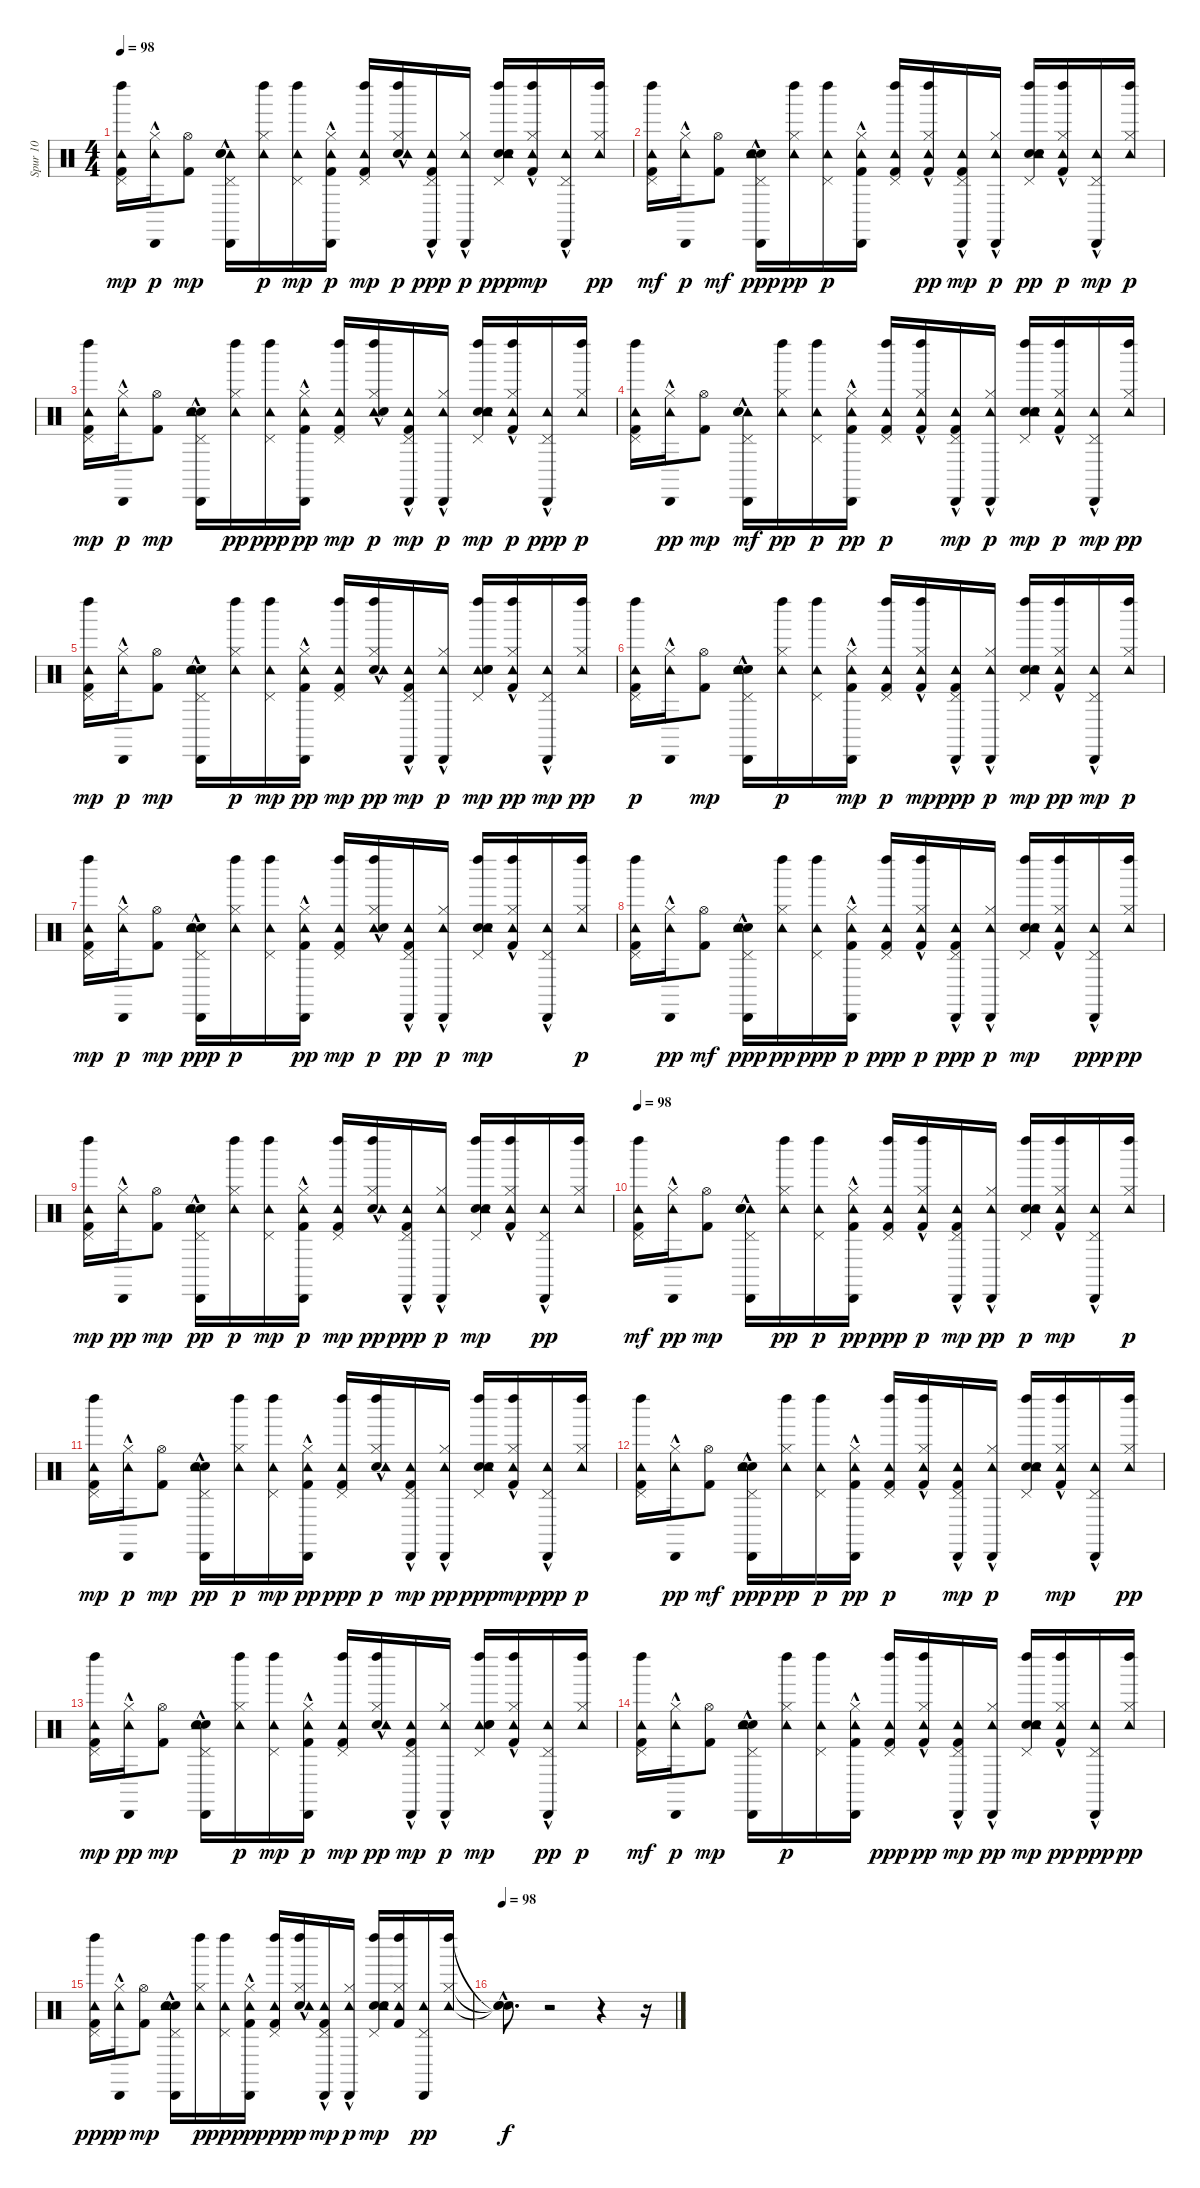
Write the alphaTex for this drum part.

\track ("Spur 10" "Spur 10") {instrument percussion}
\staff {score}
\articulation defaults
\ts (4 4)
\tempo 98
\clef neutral
\ks c
("Left Maraca (hit)" "Kick (hit) 2" "Tambourine (hit)" "Pedal Hi-Hat (hit)").16{dy mp} ("Tambourine (hit)"{hac} "Cabasa (hit)"{hac} "Hi-Hat (closed)").16{dy p} ("Kick (hit) 2" "Hi-Hat (open)").8{dy mp} ("Pedal Hi-Hat (hit)" "Tambourine (hit)" "Cabasa (hit)"{hac} "Snare (hit) 2" "Hand Clap (hit)").16 ("Tambourine (hit)" "Hi-Hat (closed)" "Left Maraca (hit)").16{dy p} ("Tambourine (hit)" "Left Maraca (hit)" "Pedal Hi-Hat (hit)").16{dy mp} ("Cabasa (hit)"{hac} "Kick (hit) 2" "Tambourine (hit)" "Hi-Hat (closed)").16{dy p} ("Left Maraca (hit)" "Kick (hit) 2" "Tambourine (hit)" "Pedal Hi-Hat (hit)").16{dy mp} ("Left Maraca (hit)"{hac} "Snare (hit) 2"{hac} "Tambourine (hit)" "Hi-Hat (closed)").16{dy p} ("Cabasa (hit)" "Kick (hit) 2"{hac} "Pedal Hi-Hat (hit)" "Tambourine (hit)").16{dy ppp} ("Tambourine (hit)" "Cabasa (hit)"{hac} "Hi-Hat (closed)").16{dy p} ("Left Maraca (hit)" "Hand Clap (hit)" "Snare (hit) 2" "Pedal Hi-Hat (hit)" "Tambourine (hit)").16{dy ppp} ("Left Maraca (hit)" "Tambourine (hit)" "Kick (hit) 2"{hac} "Hi-Hat (closed)").16{dy mp} ("Tambourine (hit)" "Cabasa (hit)"{hac} "Pedal Hi-Hat (hit)").16 ("Left Maraca (hit)" "Hi-Hat (closed)" "Tambourine (hit)").16{dy pp} |
("Kick (hit) 2" "Left Maraca (hit)" "Tambourine (hit)" "Pedal Hi-Hat (hit)").16{dy mf} ("Cabasa (hit)"{hac} "Tambourine (hit)"{hac} "Hi-Hat (closed)").16{dy p} ("Hi-Hat (open)" "Kick (hit) 2").8{dy mf} ("Hand Clap (hit)" "Cabasa (hit)"{hac} "Snare (hit) 2" "Pedal Hi-Hat (hit)" "Tambourine (hit)").16{dy ppp} ("Hi-Hat (closed)" "Left Maraca (hit)" "Tambourine (hit)").16{dy pp} ("Tambourine (hit)" "Left Maraca (hit)" "Pedal Hi-Hat (hit)").16{dy p} ("Tambourine (hit)" "Cabasa (hit)"{hac} "Kick (hit) 2" "Hi-Hat (closed)").16 ("Left Maraca (hit)" "Kick (hit) 2" "Tambourine (hit)" "Pedal Hi-Hat (hit)").16 ("Kick (hit) 2" "Left Maraca (hit)"{hac} "Hi-Hat (closed)" "Tambourine (hit)").16{dy pp} ("Cabasa (hit)" "Tambourine (hit)" "Kick (hit) 2"{hac} "Pedal Hi-Hat (hit)").16{dy mp} ("Tambourine (hit)" "Cabasa (hit)"{hac} "Hi-Hat (closed)").16{dy p} ("Pedal Hi-Hat (hit)" "Left Maraca (hit)" "Snare (hit) 2" "Hand Clap (hit)" "Tambourine (hit)").16{dy pp} ("Kick (hit) 2"{hac} "Tambourine (hit)" "Hi-Hat (closed)" "Left Maraca (hit)").16{dy p} ("Tambourine (hit)" "Cabasa (hit)"{hac} "Pedal Hi-Hat (hit)").16{dy mp} ("Left Maraca (hit)" "Tambourine (hit)" "Hi-Hat (closed)").16{dy p} |
("Left Maraca (hit)" "Kick (hit) 2" "Tambourine (hit)" "Pedal Hi-Hat (hit)").16{dy mp} ("Cabasa (hit)"{hac} "Tambourine (hit)"{hac} "Hi-Hat (closed)").16{dy p} ("Kick (hit) 2" "Hi-Hat (open)").8{dy mp} ("Cabasa (hit)"{hac} "Snare (hit) 2" "Tambourine (hit)" "Pedal Hi-Hat (hit)" "Hand Clap (hit)").16 ("Left Maraca (hit)" "Hi-Hat (closed)" "Tambourine (hit)").16{dy pp} ("Pedal Hi-Hat (hit)" "Left Maraca (hit)" "Tambourine (hit)").16{dy ppp} ("Cabasa (hit)"{hac} "Kick (hit) 2" "Hi-Hat (closed)" "Tambourine (hit)").16{dy pp} ("Left Maraca (hit)" "Kick (hit) 2" "Tambourine (hit)" "Pedal Hi-Hat (hit)").16{dy mp} ("Tambourine (hit)" "Left Maraca (hit)"{hac} "Hi-Hat (closed)" "Snare (hit) 2"{hac}).16{dy p} ("Cabasa (hit)" "Kick (hit) 2"{hac} "Tambourine (hit)" "Pedal Hi-Hat (hit)").16{dy mp} ("Tambourine (hit)" "Cabasa (hit)"{hac} "Hi-Hat (closed)").16{dy p} ("Snare (hit) 2" "Tambourine (hit)" "Hand Clap (hit)" "Left Maraca (hit)" "Pedal Hi-Hat (hit)").16{dy mp} ("Kick (hit) 2"{hac} "Hi-Hat (closed)" "Tambourine (hit)" "Left Maraca (hit)").16{dy p} ("Pedal Hi-Hat (hit)" "Cabasa (hit)"{hac} "Tambourine (hit)").16{dy ppp} ("Tambourine (hit)" "Hi-Hat (closed)" "Left Maraca (hit)").16{dy p} |
("Pedal Hi-Hat (hit)" "Kick (hit) 2" "Left Maraca (hit)" "Tambourine (hit)").16 ("Cabasa (hit)"{hac} "Hi-Hat (closed)" "Tambourine (hit)"{hac}).16{dy pp} ("Kick (hit) 2" "Hi-Hat (open)").8{dy mp} ("Cabasa (hit)"{hac} "Tambourine (hit)" "Pedal Hi-Hat (hit)" "Hand Clap (hit)" "Snare (hit) 2").16{dy mf} ("Left Maraca (hit)" "Hi-Hat (closed)" "Tambourine (hit)").16{dy pp} ("Pedal Hi-Hat (hit)" "Tambourine (hit)" "Left Maraca (hit)").16{dy p} ("Hi-Hat (closed)" "Tambourine (hit)" "Kick (hit) 2" "Cabasa (hit)"{hac}).16{dy pp} ("Kick (hit) 2" "Tambourine (hit)" "Pedal Hi-Hat (hit)" "Left Maraca (hit)").16{dy p} ("Left Maraca (hit)"{hac} "Kick (hit) 2" "Tambourine (hit)" "Hi-Hat (closed)").16 ("Cabasa (hit)" "Kick (hit) 2"{hac} "Tambourine (hit)" "Pedal Hi-Hat (hit)").16{dy mp} ("Cabasa (hit)"{hac} "Tambourine (hit)" "Hi-Hat (closed)").16{dy p} ("Left Maraca (hit)" "Snare (hit) 2" "Hand Clap (hit)" "Tambourine (hit)" "Pedal Hi-Hat (hit)").16{dy mp} ("Kick (hit) 2"{hac} "Tambourine (hit)" "Hi-Hat (closed)" "Left Maraca (hit)").16{dy p} ("Tambourine (hit)" "Cabasa (hit)"{hac} "Pedal Hi-Hat (hit)").16{dy mp} ("Left Maraca (hit)" "Hi-Hat (closed)" "Tambourine (hit)").16{dy pp} |
("Left Maraca (hit)" "Tambourine (hit)" "Kick (hit) 2" "Pedal Hi-Hat (hit)").16{dy mp} ("Tambourine (hit)"{hac} "Cabasa (hit)"{hac} "Hi-Hat (closed)").16{dy p} ("Kick (hit) 2" "Hi-Hat (open)").8{dy mp} ("Hand Clap (hit)" "Cabasa (hit)"{hac} "Snare (hit) 2" "Tambourine (hit)" "Pedal Hi-Hat (hit)").16 ("Left Maraca (hit)" "Tambourine (hit)" "Hi-Hat (closed)").16{dy p} ("Tambourine (hit)" "Left Maraca (hit)" "Pedal Hi-Hat (hit)").16{dy mp} ("Kick (hit) 2" "Cabasa (hit)"{hac} "Hi-Hat (closed)" "Tambourine (hit)").16{dy pp} ("Tambourine (hit)" "Left Maraca (hit)" "Kick (hit) 2" "Pedal Hi-Hat (hit)").16{dy mp} ("Hi-Hat (closed)" "Left Maraca (hit)"{hac} "Snare (hit) 2"{hac} "Tambourine (hit)").16{dy pp} ("Cabasa (hit)" "Kick (hit) 2"{hac} "Tambourine (hit)" "Pedal Hi-Hat (hit)").16{dy mp} ("Cabasa (hit)"{hac} "Tambourine (hit)" "Hi-Hat (closed)").16{dy p} ("Tambourine (hit)" "Left Maraca (hit)" "Snare (hit) 2" "Hand Clap (hit)" "Pedal Hi-Hat (hit)").16{dy mp} ("Hi-Hat (closed)" "Left Maraca (hit)" "Kick (hit) 2"{hac} "Tambourine (hit)").16{dy pp} ("Tambourine (hit)" "Cabasa (hit)"{hac} "Pedal Hi-Hat (hit)").16{dy mp} ("Hi-Hat (closed)" "Left Maraca (hit)" "Tambourine (hit)").16{dy pp} |
("Kick (hit) 2" "Tambourine (hit)" "Pedal Hi-Hat (hit)" "Left Maraca (hit)").16{dy p} ("Tambourine (hit)"{hac} "Cabasa (hit)"{hac} "Hi-Hat (closed)").16 ("Kick (hit) 2" "Hi-Hat (open)").8{dy mp} ("Cabasa (hit)"{hac} "Snare (hit) 2" "Hand Clap (hit)" "Tambourine (hit)" "Pedal Hi-Hat (hit)").16 ("Left Maraca (hit)" "Tambourine (hit)" "Hi-Hat (closed)").16{dy p} ("Left Maraca (hit)" "Tambourine (hit)" "Pedal Hi-Hat (hit)").16 ("Cabasa (hit)"{hac} "Tambourine (hit)" "Hi-Hat (closed)" "Kick (hit) 2").16{dy mp} ("Left Maraca (hit)" "Tambourine (hit)" "Kick (hit) 2" "Pedal Hi-Hat (hit)").16{dy p} ("Hi-Hat (closed)" "Tambourine (hit)" "Left Maraca (hit)"{hac} "Kick (hit) 2").16{dy mp} ("Pedal Hi-Hat (hit)" "Kick (hit) 2"{hac} "Cabasa (hit)" "Tambourine (hit)").16{dy ppp} ("Cabasa (hit)"{hac} "Tambourine (hit)" "Hi-Hat (closed)").16{dy p} ("Hand Clap (hit)" "Tambourine (hit)" "Left Maraca (hit)" "Snare (hit) 2" "Pedal Hi-Hat (hit)").16{dy mp} ("Hi-Hat (closed)" "Left Maraca (hit)" "Kick (hit) 2"{hac} "Tambourine (hit)").16{dy pp} ("Cabasa (hit)"{hac} "Tambourine (hit)" "Pedal Hi-Hat (hit)").16{dy mp} ("Tambourine (hit)" "Left Maraca (hit)" "Hi-Hat (closed)").16{dy p} |
("Pedal Hi-Hat (hit)" "Tambourine (hit)" "Left Maraca (hit)" "Kick (hit) 2").16{dy mp} ("Cabasa (hit)"{hac} "Tambourine (hit)"{hac} "Hi-Hat (closed)").16{dy p} ("Kick (hit) 2" "Hi-Hat (open)").8{dy mp} ("Cabasa (hit)"{hac} "Hand Clap (hit)" "Snare (hit) 2" "Pedal Hi-Hat (hit)" "Tambourine (hit)").16{dy ppp} ("Left Maraca (hit)" "Tambourine (hit)" "Hi-Hat (closed)").16{dy p} ("Tambourine (hit)" "Pedal Hi-Hat (hit)" "Left Maraca (hit)").16 ("Hi-Hat (closed)" "Kick (hit) 2" "Cabasa (hit)"{hac} "Tambourine (hit)").16{dy pp} ("Left Maraca (hit)" "Kick (hit) 2" "Tambourine (hit)" "Pedal Hi-Hat (hit)").16{dy mp} ("Tambourine (hit)" "Hi-Hat (closed)" "Left Maraca (hit)"{hac} "Snare (hit) 2"{hac}).16{dy p} ("Kick (hit) 2"{hac} "Tambourine (hit)" "Pedal Hi-Hat (hit)" "Cabasa (hit)").16{dy pp} ("Tambourine (hit)" "Cabasa (hit)"{hac} "Hi-Hat (closed)").16{dy p} ("Left Maraca (hit)" "Snare (hit) 2" "Hand Clap (hit)" "Tambourine (hit)" "Pedal Hi-Hat (hit)").16{dy mp} ("Left Maraca (hit)" "Kick (hit) 2"{hac} "Tambourine (hit)" "Hi-Hat (closed)").16 ("Cabasa (hit)"{hac} "Tambourine (hit)" "Pedal Hi-Hat (hit)").16 ("Left Maraca (hit)" "Tambourine (hit)" "Hi-Hat (closed)").16{dy p} |
("Kick (hit) 2" "Tambourine (hit)" "Pedal Hi-Hat (hit)" "Left Maraca (hit)").16 ("Cabasa (hit)"{hac} "Hi-Hat (closed)" "Tambourine (hit)"{hac}).16{dy pp} ("Hi-Hat (open)" "Kick (hit) 2").8{dy mf} ("Cabasa (hit)"{hac} "Hand Clap (hit)" "Snare (hit) 2" "Pedal Hi-Hat (hit)" "Tambourine (hit)").16{dy ppp} ("Left Maraca (hit)" "Hi-Hat (closed)" "Tambourine (hit)").16{dy pp} ("Pedal Hi-Hat (hit)" "Left Maraca (hit)" "Tambourine (hit)").16{dy ppp} ("Cabasa (hit)"{hac} "Kick (hit) 2" "Tambourine (hit)" "Hi-Hat (closed)").16{dy p} ("Left Maraca (hit)" "Kick (hit) 2" "Pedal Hi-Hat (hit)" "Tambourine (hit)").16{dy ppp} ("Tambourine (hit)" "Left Maraca (hit)"{hac} "Kick (hit) 2" "Hi-Hat (closed)").16{dy p} ("Pedal Hi-Hat (hit)" "Cabasa (hit)" "Kick (hit) 2"{hac} "Tambourine (hit)").16{dy ppp} ("Tambourine (hit)" "Cabasa (hit)"{hac} "Hi-Hat (closed)").16{dy p} ("Hand Clap (hit)" "Left Maraca (hit)" "Snare (hit) 2" "Tambourine (hit)" "Pedal Hi-Hat (hit)").16{dy mp} ("Left Maraca (hit)" "Kick (hit) 2"{hac} "Tambourine (hit)" "Hi-Hat (closed)").16 ("Cabasa (hit)"{hac} "Pedal Hi-Hat (hit)" "Tambourine (hit)").16{dy ppp} ("Left Maraca (hit)" "Hi-Hat (closed)" "Tambourine (hit)").16{dy pp} |
("Tambourine (hit)" "Left Maraca (hit)" "Kick (hit) 2" "Pedal Hi-Hat (hit)").16{dy mp} ("Cabasa (hit)"{hac} "Hi-Hat (closed)" "Tambourine (hit)"{hac}).16{dy pp} ("Hi-Hat (open)" "Kick (hit) 2").8{dy mp} ("Snare (hit) 2" "Hand Clap (hit)" "Tambourine (hit)" "Pedal Hi-Hat (hit)" "Cabasa (hit)"{hac}).16{dy pp} ("Left Maraca (hit)" "Tambourine (hit)" "Hi-Hat (closed)").16{dy p} ("Left Maraca (hit)" "Tambourine (hit)" "Pedal Hi-Hat (hit)").16{dy mp} ("Cabasa (hit)"{hac} "Kick (hit) 2" "Tambourine (hit)" "Hi-Hat (closed)").16{dy p} ("Left Maraca (hit)" "Kick (hit) 2" "Tambourine (hit)" "Pedal Hi-Hat (hit)").16{dy mp} ("Left Maraca (hit)"{hac} "Snare (hit) 2"{hac} "Hi-Hat (closed)" "Tambourine (hit)").16{dy pp} ("Kick (hit) 2"{hac} "Cabasa (hit)" "Pedal Hi-Hat (hit)" "Tambourine (hit)").16{dy ppp} ("Cabasa (hit)"{hac} "Tambourine (hit)" "Hi-Hat (closed)").16{dy p} ("Snare (hit) 2" "Left Maraca (hit)" "Hand Clap (hit)" "Tambourine (hit)" "Pedal Hi-Hat (hit)").16{dy mp} ("Kick (hit) 2"{hac} "Left Maraca (hit)" "Tambourine (hit)" "Hi-Hat (closed)").16 ("Pedal Hi-Hat (hit)" "Tambourine (hit)" "Cabasa (hit)"{hac}).16{dy pp} ("Left Maraca (hit)" "Hi-Hat (closed)" "Tambourine (hit)").16 |
\tempo 98
("Tambourine (hit)" "Left Maraca (hit)" "Kick (hit) 2" "Pedal Hi-Hat (hit)").16{dy mf} ("Cabasa (hit)"{hac} "Hi-Hat (closed)" "Tambourine (hit)"{hac}).16{dy pp} ("Kick (hit) 2" "Hi-Hat (open)").8{dy mp} ("Tambourine (hit)" "Hand Clap (hit)" "Cabasa (hit)"{hac} "Snare (hit) 2" "Pedal Hi-Hat (hit)").16 ("Left Maraca (hit)" "Hi-Hat (closed)" "Tambourine (hit)").16{dy pp} ("Tambourine (hit)" "Left Maraca (hit)" "Pedal Hi-Hat (hit)").16{dy p} ("Hi-Hat (closed)" "Cabasa (hit)"{hac} "Kick (hit) 2" "Tambourine (hit)").16{dy pp} ("Pedal Hi-Hat (hit)" "Kick (hit) 2" "Left Maraca (hit)" "Tambourine (hit)").16{dy ppp} ("Left Maraca (hit)"{hac} "Kick (hit) 2" "Tambourine (hit)" "Hi-Hat (closed)").16{dy p} ("Kick (hit) 2"{hac} "Cabasa (hit)" "Tambourine (hit)" "Pedal Hi-Hat (hit)").16{dy mp} ("Hi-Hat (closed)" "Tambourine (hit)" "Cabasa (hit)"{hac}).16{dy pp} ("Hand Clap (hit)" "Snare (hit) 2" "Tambourine (hit)" "Pedal Hi-Hat (hit)" "Left Maraca (hit)").16{dy p} ("Left Maraca (hit)" "Tambourine (hit)" "Kick (hit) 2"{hac} "Hi-Hat (closed)").16{dy mp} ("Cabasa (hit)"{hac} "Tambourine (hit)" "Pedal Hi-Hat (hit)").16 ("Left Maraca (hit)" "Tambourine (hit)" "Hi-Hat (closed)").16{dy p} |
("Left Maraca (hit)" "Kick (hit) 2" "Tambourine (hit)" "Pedal Hi-Hat (hit)").16{dy mp} ("Cabasa (hit)"{hac} "Tambourine (hit)"{hac} "Hi-Hat (closed)").16{dy p} ("Kick (hit) 2" "Hi-Hat (open)").8{dy mp} ("Snare (hit) 2" "Hand Clap (hit)" "Tambourine (hit)" "Pedal Hi-Hat (hit)" "Cabasa (hit)"{hac}).16{dy pp} ("Tambourine (hit)" "Left Maraca (hit)" "Hi-Hat (closed)").16{dy p} ("Tambourine (hit)" "Left Maraca (hit)" "Pedal Hi-Hat (hit)").16{dy mp} ("Hi-Hat (closed)" "Cabasa (hit)"{hac} "Kick (hit) 2" "Tambourine (hit)").16{dy pp} ("Kick (hit) 2" "Left Maraca (hit)" "Pedal Hi-Hat (hit)" "Tambourine (hit)").16{dy ppp} ("Snare (hit) 2"{hac} "Left Maraca (hit)"{hac} "Tambourine (hit)" "Hi-Hat (closed)").16{dy p} ("Cabasa (hit)" "Kick (hit) 2"{hac} "Tambourine (hit)" "Pedal Hi-Hat (hit)").16{dy mp} ("Cabasa (hit)"{hac} "Hi-Hat (closed)" "Tambourine (hit)").16{dy pp} ("Left Maraca (hit)" "Hand Clap (hit)" "Snare (hit) 2" "Pedal Hi-Hat (hit)" "Tambourine (hit)").16{dy ppp} ("Left Maraca (hit)" "Tambourine (hit)" "Kick (hit) 2"{hac} "Hi-Hat (closed)").16{dy mp} ("Pedal Hi-Hat (hit)" "Cabasa (hit)"{hac} "Tambourine (hit)").16{dy ppp} ("Left Maraca (hit)" "Tambourine (hit)" "Hi-Hat (closed)").16{dy p} |
("Left Maraca (hit)" "Kick (hit) 2" "Pedal Hi-Hat (hit)" "Tambourine (hit)").16 ("Hi-Hat (closed)" "Cabasa (hit)"{hac} "Tambourine (hit)"{hac}).16{dy pp} ("Hi-Hat (open)" "Kick (hit) 2").8{dy mf} ("Hand Clap (hit)" "Cabasa (hit)"{hac} "Snare (hit) 2" "Pedal Hi-Hat (hit)" "Tambourine (hit)").16{dy ppp} ("Hi-Hat (closed)" "Left Maraca (hit)" "Tambourine (hit)").16{dy pp} ("Tambourine (hit)" "Pedal Hi-Hat (hit)" "Left Maraca (hit)").16{dy p} ("Kick (hit) 2" "Cabasa (hit)"{hac} "Hi-Hat (closed)" "Tambourine (hit)").16{dy pp} ("Left Maraca (hit)" "Kick (hit) 2" "Tambourine (hit)" "Pedal Hi-Hat (hit)").16{dy p} ("Left Maraca (hit)"{hac} "Kick (hit) 2" "Tambourine (hit)" "Hi-Hat (closed)").16 ("Cabasa (hit)" "Kick (hit) 2"{hac} "Tambourine (hit)" "Pedal Hi-Hat (hit)").16{dy mp} ("Cabasa (hit)"{hac} "Tambourine (hit)" "Hi-Hat (closed)").16{dy p} ("Snare (hit) 2" "Hand Clap (hit)" "Tambourine (hit)" "Pedal Hi-Hat (hit)" "Left Maraca (hit)").16 ("Left Maraca (hit)" "Kick (hit) 2"{hac} "Tambourine (hit)" "Hi-Hat (closed)").16{dy mp} ("Tambourine (hit)" "Cabasa (hit)"{hac} "Pedal Hi-Hat (hit)").16 ("Left Maraca (hit)" "Hi-Hat (closed)" "Tambourine (hit)").16{dy pp} |
("Left Maraca (hit)" "Kick (hit) 2" "Tambourine (hit)" "Pedal Hi-Hat (hit)").16{dy mp} ("Hi-Hat (closed)" "Tambourine (hit)"{hac} "Cabasa (hit)"{hac}).16{dy pp} ("Hi-Hat (open)" "Kick (hit) 2").8{dy mp} ("Hand Clap (hit)" "Cabasa (hit)"{hac} "Snare (hit) 2" "Tambourine (hit)" "Pedal Hi-Hat (hit)").16 ("Tambourine (hit)" "Hi-Hat (closed)" "Left Maraca (hit)").16{dy p} ("Left Maraca (hit)" "Tambourine (hit)" "Pedal Hi-Hat (hit)").16{dy mp} ("Kick (hit) 2" "Cabasa (hit)"{hac} "Tambourine (hit)" "Hi-Hat (closed)").16{dy p} ("Tambourine (hit)" "Pedal Hi-Hat (hit)" "Left Maraca (hit)" "Kick (hit) 2").16{dy mp} ("Snare (hit) 2"{hac} "Left Maraca (hit)"{hac} "Hi-Hat (closed)" "Tambourine (hit)").16{dy pp} ("Cabasa (hit)" "Kick (hit) 2"{hac} "Tambourine (hit)" "Pedal Hi-Hat (hit)").16{dy mp} ("Tambourine (hit)" "Cabasa (hit)"{hac} "Hi-Hat (closed)").16{dy p} ("Tambourine (hit)" "Hand Clap (hit)" "Left Maraca (hit)" "Snare (hit) 2" "Pedal Hi-Hat (hit)").16{dy mp} ("Left Maraca (hit)" "Hi-Hat (closed)" "Tambourine (hit)" "Kick (hit) 2"{hac}).16 ("Pedal Hi-Hat (hit)" "Tambourine (hit)" "Cabasa (hit)"{hac}).16{dy pp} ("Tambourine (hit)" "Hi-Hat (closed)" "Left Maraca (hit)").16{dy p} |
("Kick (hit) 2" "Left Maraca (hit)" "Tambourine (hit)" "Pedal Hi-Hat (hit)").16{dy mf} ("Cabasa (hit)"{hac} "Tambourine (hit)"{hac} "Hi-Hat (closed)").16{dy p} ("Kick (hit) 2" "Hi-Hat (open)").8{dy mp} ("Cabasa (hit)"{hac} "Snare (hit) 2" "Hand Clap (hit)" "Tambourine (hit)" "Pedal Hi-Hat (hit)").16 ("Left Maraca (hit)" "Tambourine (hit)" "Hi-Hat (closed)").16{dy p} ("Tambourine (hit)" "Pedal Hi-Hat (hit)" "Left Maraca (hit)").16 ("Cabasa (hit)"{hac} "Tambourine (hit)" "Kick (hit) 2" "Hi-Hat (closed)").16 ("Pedal Hi-Hat (hit)" "Left Maraca (hit)" "Kick (hit) 2" "Tambourine (hit)").16{dy ppp} ("Kick (hit) 2" "Left Maraca (hit)"{hac} "Hi-Hat (closed)" "Tambourine (hit)").16{dy pp} ("Cabasa (hit)" "Tambourine (hit)" "Kick (hit) 2"{hac} "Pedal Hi-Hat (hit)").16{dy mp} ("Hi-Hat (closed)" "Cabasa (hit)"{hac} "Tambourine (hit)").16{dy pp} ("Left Maraca (hit)" "Snare (hit) 2" "Hand Clap (hit)" "Tambourine (hit)" "Pedal Hi-Hat (hit)").16{dy mp} ("Kick (hit) 2"{hac} "Left Maraca (hit)" "Hi-Hat (closed)" "Tambourine (hit)").16{dy pp} ("Cabasa (hit)"{hac} "Pedal Hi-Hat (hit)" "Tambourine (hit)").16{dy ppp} ("Hi-Hat (closed)" "Left Maraca (hit)" "Tambourine (hit)").16{dy pp} |
("Kick (hit) 2" "Left Maraca (hit)" "Pedal Hi-Hat (hit)" "Tambourine (hit)").16{dy ppp} ("Tambourine (hit)"{hac} "Cabasa (hit)"{hac} "Hi-Hat (closed)").16{dy p} ("Kick (hit) 2" "Hi-Hat (open)").8{dy mp} ("Cabasa (hit)"{hac} "Snare (hit) 2" "Tambourine (hit)" "Hand Clap (hit)" "Pedal Hi-Hat (hit)").16 ("Tambourine (hit)" "Left Maraca (hit)" "Hi-Hat (closed)").16{dy p} ("Left Maraca (hit)" "Pedal Hi-Hat (hit)" "Tambourine (hit)").16{dy ppp} ("Cabasa (hit)"{hac} "Tambourine (hit)" "Kick (hit) 2" "Hi-Hat (closed)").16{dy p} ("Pedal Hi-Hat (hit)" "Left Maraca (hit)" "Kick (hit) 2" "Tambourine (hit)").16{dy ppp} ("Snare (hit) 2"{hac} "Tambourine (hit)" "Hi-Hat (closed)" "Left Maraca (hit)"{hac}).16{dy p} ("Cabasa (hit)" "Kick (hit) 2"{hac} "Tambourine (hit)" "Pedal Hi-Hat (hit)").16{dy mp} ("Cabasa (hit)"{hac} "Tambourine (hit)" "Hi-Hat (closed)").16{dy p} ("Left Maraca (hit)" "Snare (hit) 2" "Hand Clap (hit)" "Tambourine (hit)" "Pedal Hi-Hat (hit)").16{dy mp} ("Left Maraca (hit)" "Kick (hit) 2" "Tambourine (hit)" "Hi-Hat (closed)").16 ("Tambourine (hit)" "Pedal Hi-Hat (hit)" "Cabasa (hit)").16{dy pp} ("Left Maraca (hit)" "Hi-Hat (closed)" "Tambourine (hit)").16 |
\tempo 98
("Snare (hit)"{hac t} "Snare (hit)"{hac t} "Snare (hit)"{hac t}).8{d dy f} r.2 r.4 r.16
